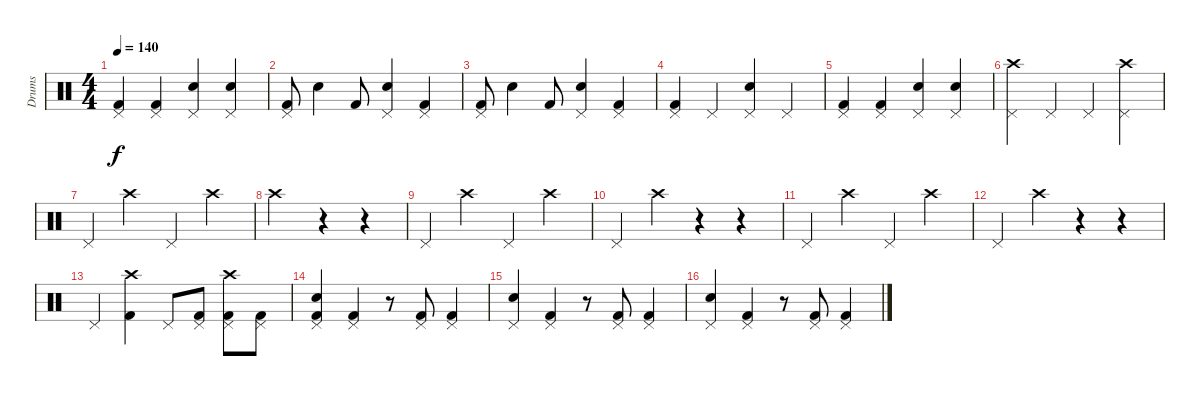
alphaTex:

\track ("Drums" "Drums") {instrument percussion}
\staff {score}
\articulation defaults
\ts (4 4)
\tempo 140
\clef neutral
\ks c
("Pedal Hi-Hat (hit)" "Kick (hit) 2").4{dy f} ("Pedal Hi-Hat (hit)" "Kick (hit) 2").4 ("Pedal Hi-Hat (hit)" "Electric Snare (hit)").4 ("Pedal Hi-Hat (hit)" "Electric Snare (hit)").4 |
("Pedal Hi-Hat (hit)" "Kick (hit) 2").8 "Electric Snare (hit)".4 "Kick (hit) 2".8 ("Pedal Hi-Hat (hit)" "Electric Snare (hit)").4 ("Pedal Hi-Hat (hit)" "Kick (hit) 2").4 |
("Pedal Hi-Hat (hit)" "Kick (hit) 2").8 "Electric Snare (hit)".4 "Kick (hit) 2".8 ("Pedal Hi-Hat (hit)" "Electric Snare (hit)").4 ("Pedal Hi-Hat (hit)" "Kick (hit) 2").4 |
("Pedal Hi-Hat (hit)" "Kick (hit) 2").4 "Pedal Hi-Hat (hit)".4 ("Pedal Hi-Hat (hit)" "Electric Snare (hit)").4 "Pedal Hi-Hat (hit)".4 |
("Pedal Hi-Hat (hit)" "Kick (hit) 2").4 ("Pedal Hi-Hat (hit)" "Kick (hit) 2").4 ("Pedal Hi-Hat (hit)" "Electric Snare (hit)").4 ("Pedal Hi-Hat (hit)" "Electric Snare (hit)").4 |
("Pedal Hi-Hat (hit)" "Crash high (hit)").4 "Pedal Hi-Hat (hit)".4 "Pedal Hi-Hat (hit)".4 ("Pedal Hi-Hat (hit)" "Crash high (hit)").4 |
"Pedal Hi-Hat (hit)".4 "Crash high (hit)".4 "Pedal Hi-Hat (hit)".4 "Crash high (hit)".4 |
"Crash high (hit)".2 r.4 r.4 |
"Pedal Hi-Hat (hit)".4 "Crash high (hit)".4 "Pedal Hi-Hat (hit)".4 "Crash high (hit)".4 |
"Pedal Hi-Hat (hit)".4 "Crash high (hit)".4 r.4 r.4 |
"Pedal Hi-Hat (hit)".4 "Crash high (hit)".4 "Pedal Hi-Hat (hit)".4 "Crash high (hit)".4 |
"Pedal Hi-Hat (hit)".4 "Crash high (hit)".4 r.4 r.4 |
"Pedal Hi-Hat (hit)".4 ("Crash high (hit)" "Kick (hit) 2").4 "Pedal Hi-Hat (hit)".8 ("Pedal Hi-Hat (hit)" "Kick (hit) 2").8 ("Pedal Hi-Hat (hit)" "Kick (hit) 2" "Crash high (hit)").8 ("Pedal Hi-Hat (hit)" "Kick (hit) 2").8 |
("Pedal Hi-Hat (hit)" "Kick (hit) 2" "Electric Snare (hit)").4 ("Pedal Hi-Hat (hit)" "Kick (hit) 2").4 r.8 ("Pedal Hi-Hat (hit)" "Kick (hit) 2").8 ("Pedal Hi-Hat (hit)" "Kick (hit) 2").4 |
("Pedal Hi-Hat (hit)" "Electric Snare (hit)").4 ("Pedal Hi-Hat (hit)" "Kick (hit) 2").4 r.8 ("Pedal Hi-Hat (hit)" "Kick (hit) 2").8 ("Pedal Hi-Hat (hit)" "Kick (hit) 2").4 |
("Pedal Hi-Hat (hit)" "Electric Snare (hit)").4 ("Pedal Hi-Hat (hit)" "Kick (hit) 2").4 r.8 ("Pedal Hi-Hat (hit)" "Kick (hit) 2").8 ("Pedal Hi-Hat (hit)" "Kick (hit) 2").4
